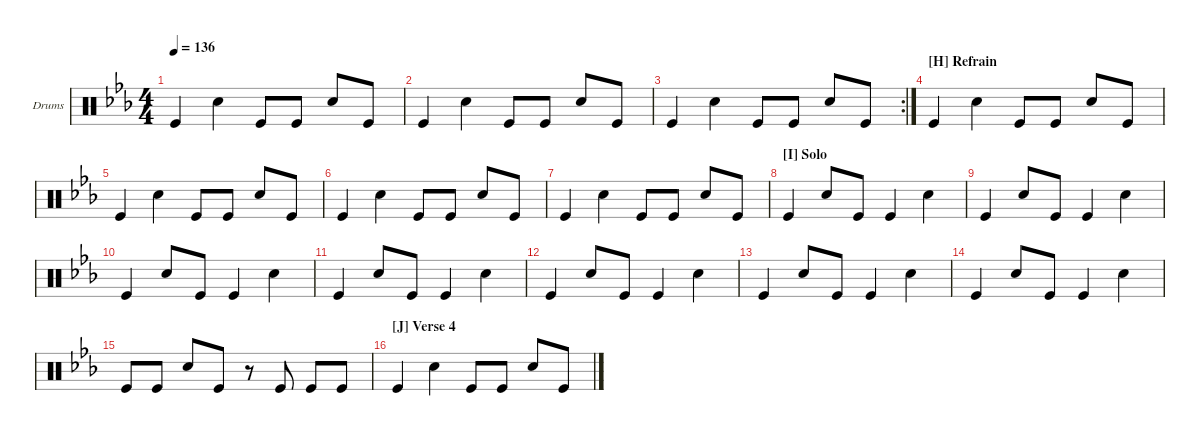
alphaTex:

\defaultSystemsLayout 4
\hideDynamics
\bracketExtendMode groupsimilarinstruments
\firstSystemTrackNameOrientation horizontal
\otherSystemsTrackNameOrientation horizontal
\track ("Drumkit" "Drums") {multiBarRest instrument percussion}
\staff {score}
\articulation defaults
\ts (4 4)
\tempo 136
\clef neutral
\ks eb "Kick (hit)".4{dy mf} "Snare (hit) 2".4 "Kick (hit)".8 "Kick (hit)".8 "Snare (hit) 2".8 "Kick (hit)".8
|
"Kick (hit)".4 "Snare (hit) 2".4 "Kick (hit)".8 "Kick (hit)".8 "Snare (hit) 2".8 "Kick (hit)".8 |
\rc 2 "Kick (hit)".4 "Snare (hit) 2".4 "Kick (hit)".8 "Kick (hit)".8 "Snare (hit) 2".8 "Kick (hit)".8
|
\section ("H" "Refrain")
"Kick (hit)".4 "Snare (hit) 2".4 "Kick (hit)".8 "Kick (hit)".8 "Snare (hit) 2".8 "Kick (hit)".8 |
"Kick (hit)".4 "Snare (hit) 2".4 "Kick (hit)".8 "Kick (hit)".8 "Snare (hit) 2".8 "Kick (hit)".8 |
"Kick (hit)".4 "Snare (hit) 2".4 "Kick (hit)".8 "Kick (hit)".8 "Snare (hit) 2".8 "Kick (hit)".8 |
"Kick (hit)".4 "Snare (hit) 2".4 "Kick (hit)".8 "Kick (hit)".8 "Snare (hit) 2".8 "Kick (hit)".8 |
\section ("I" "Solo")
"Kick (hit)".4 "Snare (hit) 2".8 "Kick (hit)".8 "Kick (hit)".4 "Snare (hit) 2".4 |
"Kick (hit)".4 "Snare (hit) 2".8 "Kick (hit)".8 "Kick (hit)".4 "Snare (hit) 2".4 |
"Kick (hit)".4 "Snare (hit) 2".8 "Kick (hit)".8 "Kick (hit)".4 "Snare (hit) 2".4 |
"Kick (hit)".4 "Snare (hit) 2".8 "Kick (hit)".8 "Kick (hit)".4 "Snare (hit) 2".4 |
"Kick (hit)".4 "Snare (hit) 2".8 "Kick (hit)".8 "Kick (hit)".4 "Snare (hit) 2".4 |
"Kick (hit)".4 "Snare (hit) 2".8 "Kick (hit)".8 "Kick (hit)".4 "Snare (hit) 2".4 |
"Kick (hit)".4 "Snare (hit) 2".8 "Kick (hit)".8 "Kick (hit)".4 "Snare (hit) 2".4 |
"Kick (hit)".8 "Kick (hit)".8 "Snare (hit) 2".8 "Kick (hit)".8 r.8 "Kick (hit)".8 "Kick (hit)".8 "Kick (hit)".8 |
\section ("J" "Verse 4")
"Kick (hit)".4 "Snare (hit) 2".4 "Kick (hit)".8 "Kick (hit)".8 "Snare (hit) 2".8 "Kick (hit)".8
